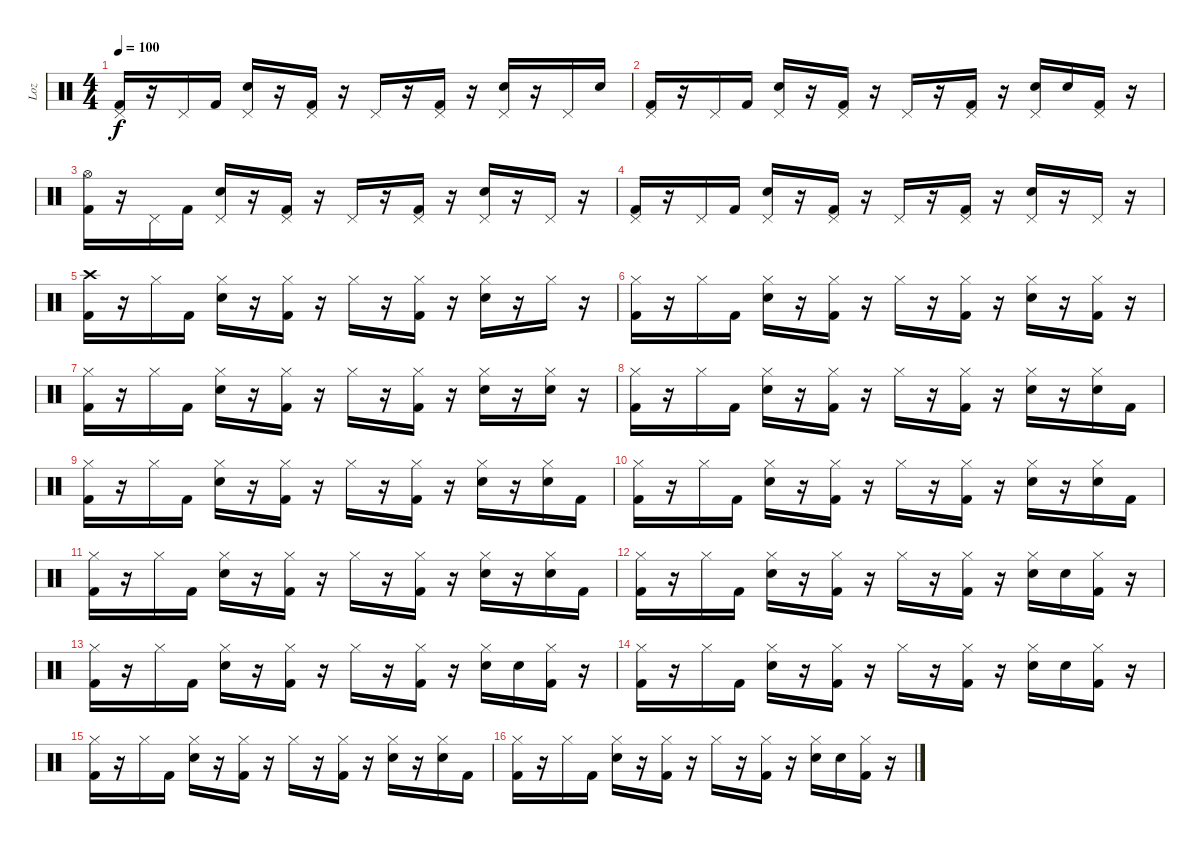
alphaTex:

\track ("Loz" "Loz") {instrument percussion}
\staff {score}
\articulation defaults
\ts (4 4)
\tempo 100
\clef neutral
\ks c
("Pedal Hi-Hat (hit)" "Kick (hit) 2").16{dy f} r.16 "Pedal Hi-Hat (hit)".16 "Kick (hit) 2".16 ("Pedal Hi-Hat (hit)" "Electric Snare (hit)").16 r.16 ("Pedal Hi-Hat (hit)" "Kick (hit) 2").16 r.16 "Pedal Hi-Hat (hit)".16 r.16 ("Pedal Hi-Hat (hit)" "Kick (hit) 2").16 r.16 ("Pedal Hi-Hat (hit)" "Electric Snare (hit)").16 r.16 "Pedal Hi-Hat (hit)".16 "Electric Snare (hit)".16 |
("Pedal Hi-Hat (hit)" "Kick (hit) 2").16 r.16 "Pedal Hi-Hat (hit)".16 "Kick (hit) 2".16 ("Pedal Hi-Hat (hit)" "Electric Snare (hit)").16 r.16 ("Pedal Hi-Hat (hit)" "Kick (hit) 2").16 r.16 "Pedal Hi-Hat (hit)".16 r.16 ("Pedal Hi-Hat (hit)" "Kick (hit) 2").16 r.16 ("Pedal Hi-Hat (hit)" "Electric Snare (hit)").16 "Electric Snare (hit)".16 ("Pedal Hi-Hat (hit)" "Kick (hit) 2").16 r.16 |
("Hi-Hat (open)" "Kick (hit) 2").16 r.16 "Pedal Hi-Hat (hit)".16 "Kick (hit) 2".16 ("Pedal Hi-Hat (hit)" "Electric Snare (hit)").16 r.16 ("Pedal Hi-Hat (hit)" "Kick (hit) 2").16 r.16 "Pedal Hi-Hat (hit)".16 r.16 ("Pedal Hi-Hat (hit)" "Kick (hit) 2").16 r.16 ("Pedal Hi-Hat (hit)" "Electric Snare (hit)").16 r.16 "Pedal Hi-Hat (hit)".16 r.16 |
("Pedal Hi-Hat (hit)" "Kick (hit) 2").16 r.16 "Pedal Hi-Hat (hit)".16 "Kick (hit) 2".16 ("Pedal Hi-Hat (hit)" "Electric Snare (hit)").16 r.16 ("Pedal Hi-Hat (hit)" "Kick (hit) 2").16 r.16 "Pedal Hi-Hat (hit)".16 r.16 ("Pedal Hi-Hat (hit)" "Kick (hit) 2").16 r.16 ("Pedal Hi-Hat (hit)" "Electric Snare (hit)").16 r.16 "Pedal Hi-Hat (hit)".16 r.16 |
("Crash high (hit)" "Kick (hit) 2").16 r.16 "Hi-Hat (closed)".16 "Kick (hit) 2".16 ("Hi-Hat (closed)" "Electric Snare (hit)").16 r.16 ("Hi-Hat (closed)" "Kick (hit) 2").16 r.16 "Hi-Hat (closed)".16 r.16 ("Hi-Hat (closed)" "Kick (hit) 2").16 r.16 ("Hi-Hat (closed)" "Electric Snare (hit)").16 r.16 "Hi-Hat (closed)".16 r.16 |
("Hi-Hat (closed)" "Kick (hit) 2").16 r.16 "Hi-Hat (closed)".16 "Kick (hit) 2".16 ("Hi-Hat (closed)" "Electric Snare (hit)").16 r.16 ("Hi-Hat (closed)" "Kick (hit) 2").16 r.16 "Hi-Hat (closed)".16 r.16 ("Hi-Hat (closed)" "Kick (hit) 2").16 r.16 ("Hi-Hat (closed)" "Electric Snare (hit)").16 r.16 ("Hi-Hat (closed)" "Kick (hit) 2").16 r.16 |
("Hi-Hat (closed)" "Kick (hit) 2").16 r.16 "Hi-Hat (closed)".16 "Kick (hit) 2".16 ("Hi-Hat (closed)" "Electric Snare (hit)").16 r.16 ("Hi-Hat (closed)" "Kick (hit) 2").16 r.16 "Hi-Hat (closed)".16 r.16 ("Hi-Hat (closed)" "Kick (hit) 2").16 r.16 ("Hi-Hat (closed)" "Electric Snare (hit)").16 r.16 ("Hi-Hat (closed)" "Electric Snare (hit)").16 r.16 |
("Hi-Hat (closed)" "Kick (hit) 2").16 r.16 "Hi-Hat (closed)".16 "Kick (hit) 2".16 ("Hi-Hat (closed)" "Electric Snare (hit)").16 r.16 ("Hi-Hat (closed)" "Kick (hit) 2").16 r.16 "Hi-Hat (closed)".16 r.16 ("Hi-Hat (closed)" "Kick (hit) 2").16 r.16 ("Hi-Hat (closed)" "Electric Snare (hit)").16 r.16 ("Hi-Hat (closed)" "Electric Snare (hit)").16 "Kick (hit) 2".16 |
("Hi-Hat (closed)" "Kick (hit) 2").16 r.16 "Hi-Hat (closed)".16 "Kick (hit) 2".16 ("Hi-Hat (closed)" "Electric Snare (hit)").16 r.16 ("Hi-Hat (closed)" "Kick (hit) 2").16 r.16 "Hi-Hat (closed)".16 r.16 ("Hi-Hat (closed)" "Kick (hit) 2").16 r.16 ("Hi-Hat (closed)" "Electric Snare (hit)").16 r.16 ("Hi-Hat (closed)" "Electric Snare (hit)").16 "Kick (hit) 2".16 |
("Hi-Hat (closed)" "Kick (hit) 2").16 r.16 "Hi-Hat (closed)".16 "Kick (hit) 2".16 ("Hi-Hat (closed)" "Electric Snare (hit)").16 r.16 ("Hi-Hat (closed)" "Kick (hit) 2").16 r.16 "Hi-Hat (closed)".16 r.16 ("Hi-Hat (closed)" "Kick (hit) 2").16 r.16 ("Hi-Hat (closed)" "Electric Snare (hit)").16 r.16 ("Hi-Hat (closed)" "Electric Snare (hit)").16 "Kick (hit) 2".16 |
("Hi-Hat (closed)" "Kick (hit) 2").16 r.16 "Hi-Hat (closed)".16 "Kick (hit) 2".16 ("Hi-Hat (closed)" "Electric Snare (hit)").16 r.16 ("Hi-Hat (closed)" "Kick (hit) 2").16 r.16 "Hi-Hat (closed)".16 r.16 ("Hi-Hat (closed)" "Kick (hit) 2").16 r.16 ("Hi-Hat (closed)" "Electric Snare (hit)").16 r.16 ("Hi-Hat (closed)" "Electric Snare (hit)").16 "Kick (hit) 2".16 |
("Hi-Hat (closed)" "Kick (hit) 2").16 r.16 "Hi-Hat (closed)".16 "Kick (hit) 2".16 ("Hi-Hat (closed)" "Electric Snare (hit)").16 r.16 ("Hi-Hat (closed)" "Kick (hit) 2").16 r.16 "Hi-Hat (closed)".16 r.16 ("Hi-Hat (closed)" "Kick (hit) 2").16 r.16 ("Hi-Hat (closed)" "Electric Snare (hit)").16 "Electric Snare (hit)".16 ("Hi-Hat (closed)" "Kick (hit) 2").16 r.16 |
("Hi-Hat (closed)" "Kick (hit) 2").16 r.16 "Hi-Hat (closed)".16 "Kick (hit) 2".16 ("Hi-Hat (closed)" "Electric Snare (hit)").16 r.16 ("Hi-Hat (closed)" "Kick (hit) 2").16 r.16 "Hi-Hat (closed)".16 r.16 ("Hi-Hat (closed)" "Kick (hit) 2").16 r.16 ("Hi-Hat (closed)" "Electric Snare (hit)").16 "Electric Snare (hit)".16 ("Hi-Hat (closed)" "Kick (hit) 2").16 r.16 |
("Hi-Hat (closed)" "Kick (hit) 2").16 r.16 "Hi-Hat (closed)".16 "Kick (hit) 2".16 ("Hi-Hat (closed)" "Electric Snare (hit)").16 r.16 ("Hi-Hat (closed)" "Kick (hit) 2").16 r.16 "Hi-Hat (closed)".16 r.16 ("Hi-Hat (closed)" "Kick (hit) 2").16 r.16 ("Hi-Hat (closed)" "Electric Snare (hit)").16 "Electric Snare (hit)".16 ("Hi-Hat (closed)" "Kick (hit) 2").16 r.16 |
("Hi-Hat (closed)" "Kick (hit) 2").16 r.16 "Hi-Hat (closed)".16 "Kick (hit) 2".16 ("Hi-Hat (closed)" "Electric Snare (hit)").16 r.16 ("Hi-Hat (closed)" "Kick (hit) 2").16 r.16 "Hi-Hat (closed)".16 r.16 ("Hi-Hat (closed)" "Kick (hit) 2").16 r.16 ("Hi-Hat (closed)" "Electric Snare (hit)").16 r.16 ("Hi-Hat (closed)" "Electric Snare (hit)").16 "Kick (hit) 2".16 |
("Hi-Hat (closed)" "Kick (hit) 2").16 r.16 "Hi-Hat (closed)".16 "Kick (hit) 2".16 ("Hi-Hat (closed)" "Electric Snare (hit)").16 r.16 ("Hi-Hat (closed)" "Kick (hit) 2").16 r.16 "Hi-Hat (closed)".16 r.16 ("Hi-Hat (closed)" "Kick (hit) 2").16 r.16 ("Hi-Hat (closed)" "Electric Snare (hit)").16 "Electric Snare (hit)".16 ("Hi-Hat (closed)" "Kick (hit) 2").16 r.16
